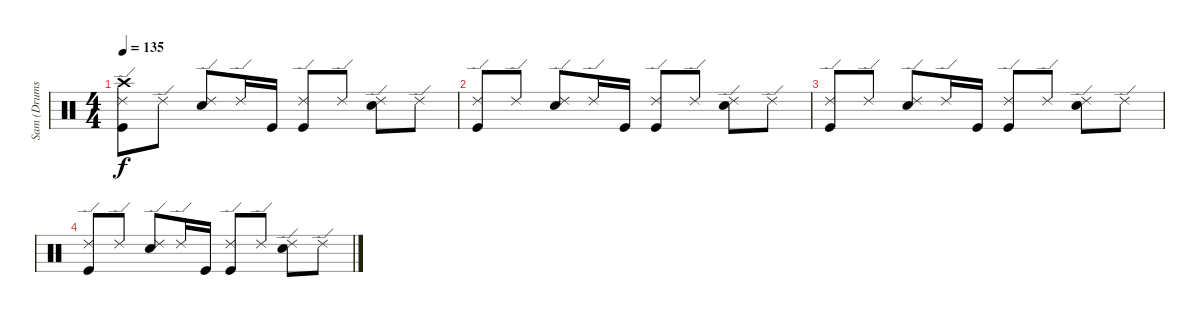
\track ("Sam (Drums)" "Sam (Drums") {instrument percussion}
\staff {score}
\articulation defaults
\ts (4 4)
\tempo 135
\clef neutral
\ks c
("Crash high (hit)" "Ride (edge) 2" "Kick (hit)").8{dy f volume 0} "Ride (edge) 2".8 ("Ride (edge) 2" "Snare (hit) 2").8 "Ride (edge) 2".16 "Kick (hit)".16 ("Ride (edge) 2" "Kick (hit)").8 "Ride (edge) 2".8 ("Ride (edge) 2" "Snare (hit) 2").8 "Ride (edge) 2".8 |
("Ride (edge) 2" "Kick (hit)").8 "Ride (edge) 2".8 ("Ride (edge) 2" "Snare (hit) 2").8 "Ride (edge) 2".16 "Kick (hit)".16 ("Ride (edge) 2" "Kick (hit)").8 "Ride (edge) 2".8 ("Ride (edge) 2" "Snare (hit) 2").8 "Ride (edge) 2".8 |
("Ride (edge) 2" "Kick (hit)").8 "Ride (edge) 2".8 ("Ride (edge) 2" "Snare (hit) 2").8 "Ride (edge) 2".16 "Kick (hit)".16 ("Ride (edge) 2" "Kick (hit)").8 "Ride (edge) 2".8 ("Ride (edge) 2" "Snare (hit) 2").8 "Ride (edge) 2".8 |
("Ride (edge) 2" "Kick (hit)").8 "Ride (edge) 2".8 ("Ride (edge) 2" "Snare (hit) 2").8 "Ride (edge) 2".16 "Kick (hit)".16 ("Ride (edge) 2" "Kick (hit)").8 "Ride (edge) 2".8 ("Ride (edge) 2" "Snare (hit) 2").8 "Ride (edge) 2".8
